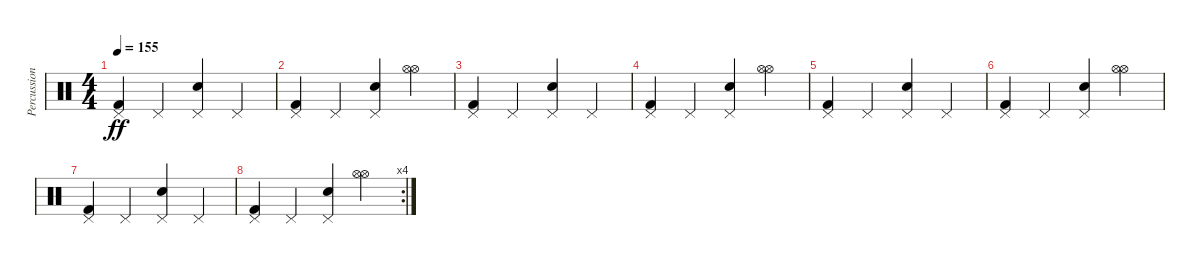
\track ("Percussions" "Percussion") {instrument percussion}
\staff {score}
\articulation defaults
\ts (4 4)
\tempo 155
\clef neutral
\ks c
("Pedal Hi-Hat (hit)" "Kick (hit) 2").4{dy ff} "Pedal Hi-Hat (hit)".4 ("Pedal Hi-Hat (hit)" "Electric Snare (hit)").4 "Pedal Hi-Hat (hit)".4 |
("Pedal Hi-Hat (hit)" "Kick (hit) 2").4 "Pedal Hi-Hat (hit)".4 ("Pedal Hi-Hat (hit)" "Electric Snare (hit)").4 ("Hi-Hat (open)" "Hi-Hat (open)").4 |
("Pedal Hi-Hat (hit)" "Kick (hit) 2").4 "Pedal Hi-Hat (hit)".4 ("Pedal Hi-Hat (hit)" "Electric Snare (hit)").4 "Pedal Hi-Hat (hit)".4 |
("Pedal Hi-Hat (hit)" "Kick (hit) 2").4 "Pedal Hi-Hat (hit)".4 ("Pedal Hi-Hat (hit)" "Electric Snare (hit)").4 ("Hi-Hat (open)" "Hi-Hat (open)").4 |
("Pedal Hi-Hat (hit)" "Kick (hit) 2").4 "Pedal Hi-Hat (hit)".4 ("Pedal Hi-Hat (hit)" "Electric Snare (hit)").4 "Pedal Hi-Hat (hit)".4 |
("Pedal Hi-Hat (hit)" "Kick (hit) 2").4 "Pedal Hi-Hat (hit)".4 ("Pedal Hi-Hat (hit)" "Electric Snare (hit)").4 ("Hi-Hat (open)" "Hi-Hat (open)").4 |
("Pedal Hi-Hat (hit)" "Kick (hit) 2").4 "Pedal Hi-Hat (hit)".4 ("Pedal Hi-Hat (hit)" "Electric Snare (hit)").4 "Pedal Hi-Hat (hit)".4 |
\rc 4
("Pedal Hi-Hat (hit)" "Kick (hit) 2").4 "Pedal Hi-Hat (hit)".4 ("Pedal Hi-Hat (hit)" "Electric Snare (hit)").4 ("Hi-Hat (open)" "Hi-Hat (open)").4
